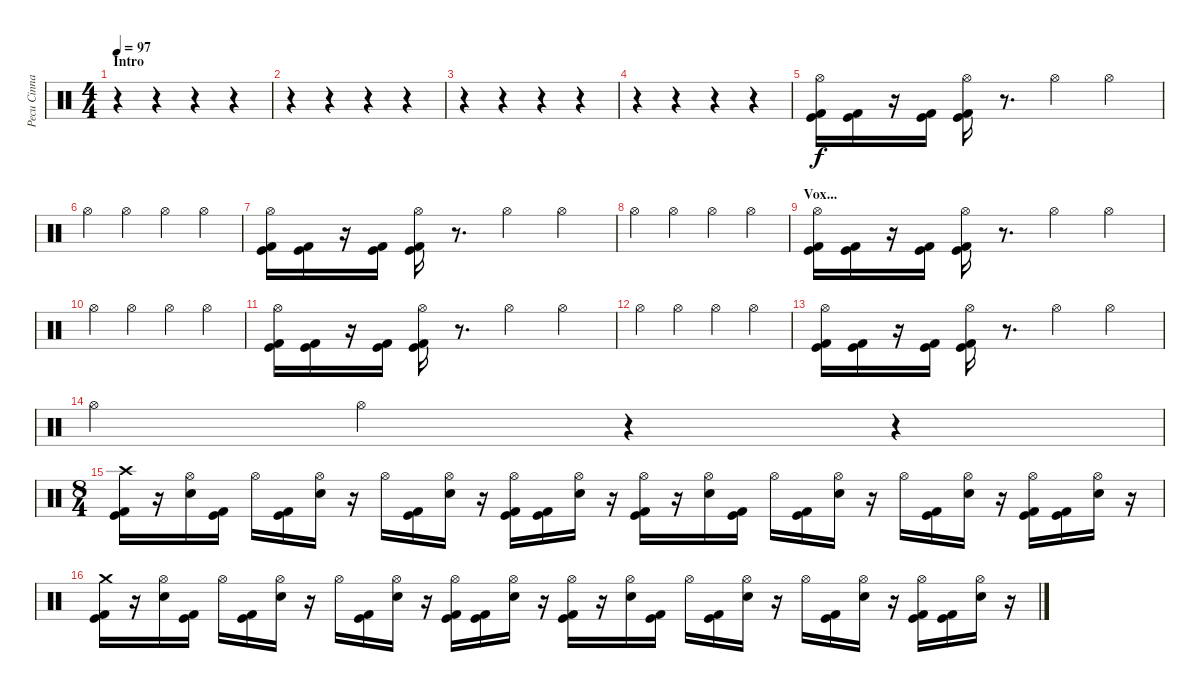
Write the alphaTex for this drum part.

\track ("Pecu Cinnari" "Pecu Cinna") {instrument percussion}
\staff {score}
\articulation defaults
\ts (4 4)
\section ("" "Intro")
\tempo 97
\clef neutral
\ks c
r.4{dy f} r.4 r.4 r.4 |
r.4 r.4 r.4 r.4 |
r.4 r.4 r.4 r.4 |
r.4 r.4 r.4 r.4 |
("Hi-Hat (open)" "Kick (hit)" "Kick (hit) 2").16 ("Kick (hit)" "Kick (hit) 2").16 r.16 ("Kick (hit)" "Kick (hit) 2").16 ("Hi-Hat (open)" "Kick (hit)" "Kick (hit) 2").16 r.8{d} "Hi-Hat (open)".4 "Hi-Hat (open)".4 |
"Hi-Hat (open)".4 "Hi-Hat (open)".4 "Hi-Hat (open)".4 "Hi-Hat (open)".4 |
("Hi-Hat (open)" "Kick (hit)" "Kick (hit) 2").16 ("Kick (hit)" "Kick (hit) 2").16 r.16 ("Kick (hit)" "Kick (hit) 2").16 ("Hi-Hat (open)" "Kick (hit)" "Kick (hit) 2").16 r.8{d} "Hi-Hat (open)".4 "Hi-Hat (open)".4 |
"Hi-Hat (open)".4 "Hi-Hat (open)".4 "Hi-Hat (open)".4 "Hi-Hat (open)".4 |
\section ("" "Vox...")
("Hi-Hat (open)" "Kick (hit)" "Kick (hit) 2").16 ("Kick (hit)" "Kick (hit) 2").16 r.16 ("Kick (hit)" "Kick (hit) 2").16 ("Hi-Hat (open)" "Kick (hit)" "Kick (hit) 2").16 r.8{d} "Hi-Hat (open)".4 "Hi-Hat (open)".4 |
"Hi-Hat (open)".4 "Hi-Hat (open)".4 "Hi-Hat (open)".4 "Hi-Hat (open)".4 |
("Hi-Hat (open)" "Kick (hit)" "Kick (hit) 2").16 ("Kick (hit)" "Kick (hit) 2").16 r.16 ("Kick (hit)" "Kick (hit) 2").16 ("Hi-Hat (open)" "Kick (hit)" "Kick (hit) 2").16 r.8{d} "Hi-Hat (open)".4 "Hi-Hat (open)".4 |
"Hi-Hat (open)".4 "Hi-Hat (open)".4 "Hi-Hat (open)".4 "Hi-Hat (open)".4 |
("Hi-Hat (open)" "Kick (hit)" "Kick (hit) 2").16 ("Kick (hit)" "Kick (hit) 2").16 r.16 ("Kick (hit)" "Kick (hit) 2").16 ("Hi-Hat (open)" "Kick (hit)" "Kick (hit) 2").16 r.8{d} "Hi-Hat (open)".4 "Hi-Hat (open)".4 |
"Hi-Hat (open)".4 "Hi-Hat (open)".4 r.4 r.4 |
\ts (8 4)
("Crash high (hit)" "Kick (hit)" "Kick (hit) 2").16 r.16 ("Hi-Hat (open)" "Electric Snare (hit)").16 ("Kick (hit)" "Kick (hit) 2").16 "Hi-Hat (open)".16 ("Kick (hit)" "Kick (hit) 2").16 ("Hi-Hat (open)" "Electric Snare (hit)").16 r.16 "Hi-Hat (open)".16 ("Kick (hit)" "Kick (hit) 2").16 ("Hi-Hat (open)" "Electric Snare (hit)").16 r.16 ("Hi-Hat (open)" "Kick (hit)" "Kick (hit) 2").16 ("Kick (hit)" "Kick (hit) 2").16 ("Hi-Hat (open)" "Electric Snare (hit)").16 r.16 ("Hi-Hat (open)" "Kick (hit)" "Kick (hit) 2").16 r.16 ("Hi-Hat (open)" "Electric Snare (hit)").16 ("Kick (hit)" "Kick (hit) 2").16 "Hi-Hat (open)".16 ("Kick (hit)" "Kick (hit) 2").16 ("Hi-Hat (open)" "Electric Snare (hit)").16 r.16 "Hi-Hat (open)".16 ("Kick (hit)" "Kick (hit) 2").16 ("Hi-Hat (open)" "Electric Snare (hit)").16 r.16 ("Hi-Hat (open)" "Kick (hit)" "Kick (hit) 2").16 ("Kick (hit)" "Kick (hit) 2").16 ("Hi-Hat (open)" "Electric Snare (hit)").16 r.16 |
("Crash medium (hit)" "Kick (hit)" "Kick (hit) 2").16 r.16 ("Hi-Hat (open)" "Electric Snare (hit)").16 ("Kick (hit)" "Kick (hit) 2").16 "Hi-Hat (open)".16 ("Kick (hit)" "Kick (hit) 2").16 ("Hi-Hat (open)" "Electric Snare (hit)").16 r.16 "Hi-Hat (open)".16 ("Kick (hit)" "Kick (hit) 2").16 ("Hi-Hat (open)" "Electric Snare (hit)").16 r.16 ("Hi-Hat (open)" "Kick (hit)" "Kick (hit) 2").16 ("Kick (hit)" "Kick (hit) 2").16 ("Hi-Hat (open)" "Electric Snare (hit)").16 r.16 ("Hi-Hat (open)" "Kick (hit)" "Kick (hit) 2").16 r.16 ("Hi-Hat (open)" "Electric Snare (hit)").16 ("Kick (hit)" "Kick (hit) 2").16 "Hi-Hat (open)".16 ("Kick (hit)" "Kick (hit) 2").16 ("Hi-Hat (open)" "Electric Snare (hit)").16 r.16 "Hi-Hat (open)".16 ("Kick (hit)" "Kick (hit) 2").16 ("Hi-Hat (open)" "Electric Snare (hit)").16 r.16 ("Hi-Hat (open)" "Kick (hit)" "Kick (hit) 2").16 ("Kick (hit)" "Kick (hit) 2").16 ("Hi-Hat (open)" "Electric Snare (hit)").16 r.16
